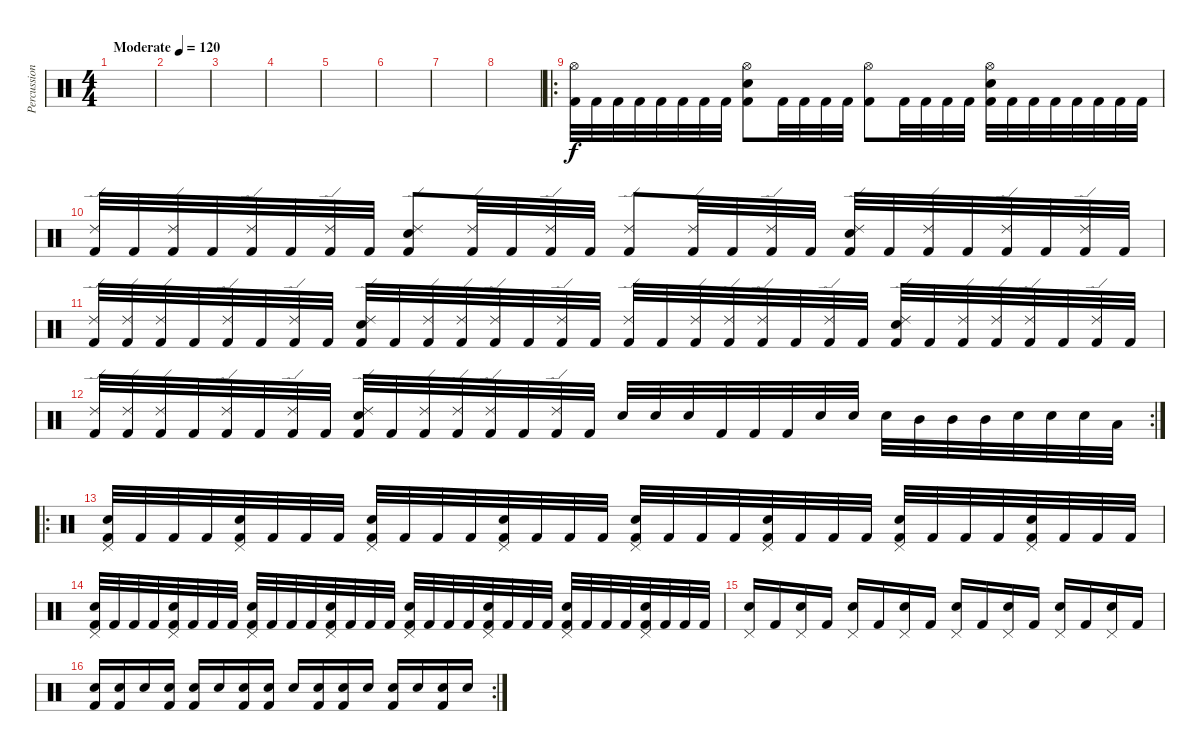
\track ("Percussions" "Percussion") {instrument percussion}
\staff {score}
\articulation defaults
\ts (4 4)
\tempo (120 "Moderate")
\clef neutral
\ks c
|
|
|
|
|
|
|
|
\ro
("Hi-Hat (open)" "Kick (hit) 2").32 "Kick (hit) 2".32 "Kick (hit) 2".32 "Kick (hit) 2".32 "Kick (hit) 2".32 "Kick (hit) 2".32 "Kick (hit) 2".32 "Kick (hit) 2".32 ("Hi-Hat (open)" "Electric Snare (hit)" "Kick (hit) 2").8 "Kick (hit) 2".32 "Kick (hit) 2".32 "Kick (hit) 2".32 "Kick (hit) 2".32 ("Hi-Hat (open)" "Kick (hit) 2").8 "Kick (hit) 2".32 "Kick (hit) 2".32 "Kick (hit) 2".32 "Kick (hit) 2".32 ("Hi-Hat (open)" "Electric Snare (hit)" "Kick (hit) 2").32 "Kick (hit) 2".32 "Kick (hit) 2".32 "Kick (hit) 2".32 "Kick (hit) 2".32 "Kick (hit) 2".32 "Kick (hit) 2".32 "Kick (hit) 2".32 |
("Ride (edge) 2" "Kick (hit) 2").32 "Kick (hit) 2".32 ("Ride (edge) 2" "Kick (hit) 2").32 "Kick (hit) 2".32 ("Ride (edge) 2" "Kick (hit) 2").32 "Kick (hit) 2".32 ("Ride (edge) 2" "Kick (hit) 2").32 "Kick (hit) 2".32 ("Ride (edge) 2" "Electric Snare (hit)" "Kick (hit) 2").8 ("Ride (edge) 2" "Kick (hit) 2").32 "Kick (hit) 2".32 ("Ride (edge) 2" "Kick (hit) 2").32 "Kick (hit) 2".32 ("Ride (edge) 2" "Kick (hit) 2").8 ("Ride (edge) 2" "Kick (hit) 2").32 "Kick (hit) 2".32 ("Ride (edge) 2" "Kick (hit) 2").32 "Kick (hit) 2".32 ("Ride (edge) 2" "Electric Snare (hit)" "Kick (hit) 2").32 "Kick (hit) 2".32 ("Ride (edge) 2" "Kick (hit) 2").32 "Kick (hit) 2".32 ("Ride (edge) 2" "Kick (hit) 2").32 "Kick (hit) 2".32 ("Ride (edge) 2" "Kick (hit) 2").32 "Kick (hit) 2".32 |
("Ride (edge) 2" "Kick (hit) 2").32 ("Ride (edge) 2" "Kick (hit) 2").32 ("Ride (edge) 2" "Kick (hit) 2").32 "Kick (hit) 2".32 ("Ride (edge) 2" "Kick (hit) 2").32 "Kick (hit) 2".32 ("Ride (edge) 2" "Kick (hit) 2").32 "Kick (hit) 2".32 ("Ride (edge) 2" "Electric Snare (hit)" "Kick (hit) 2").32 "Kick (hit) 2".32 ("Ride (edge) 2" "Kick (hit) 2").32 ("Ride (edge) 2" "Kick (hit) 2").32 ("Ride (edge) 2" "Kick (hit) 2").32 "Kick (hit) 2".32 ("Ride (edge) 2" "Kick (hit) 2").32 "Kick (hit) 2".32 ("Ride (edge) 2" "Kick (hit) 2").32 "Kick (hit) 2".32 ("Ride (edge) 2" "Kick (hit) 2").32 ("Ride (edge) 2" "Kick (hit) 2").32 ("Ride (edge) 2" "Kick (hit) 2").32 "Kick (hit) 2".32 ("Ride (edge) 2" "Kick (hit) 2").32 "Kick (hit) 2".32 ("Ride (edge) 2" "Electric Snare (hit)" "Kick (hit) 2").32 "Kick (hit) 2".32 ("Ride (edge) 2" "Kick (hit) 2").32 ("Ride (edge) 2" "Kick (hit) 2").32 ("Ride (edge) 2" "Kick (hit) 2").32 "Kick (hit) 2".32 ("Ride (edge) 2" "Kick (hit) 2").32 "Kick (hit) 2".32 |
\rc 2
("Ride (edge) 2" "Kick (hit) 2").32 ("Ride (edge) 2" "Kick (hit) 2").32 ("Ride (edge) 2" "Kick (hit) 2").32 "Kick (hit) 2".32 ("Ride (edge) 2" "Kick (hit) 2").32 "Kick (hit) 2".32 ("Ride (edge) 2" "Kick (hit) 2").32 "Kick (hit) 2".32 ("Ride (edge) 2" "Electric Snare (hit)" "Kick (hit) 2").32 "Kick (hit) 2".32 ("Ride (edge) 2" "Kick (hit) 2").32 ("Ride (edge) 2" "Kick (hit) 2").32 ("Ride (edge) 2" "Kick (hit) 2").32 "Kick (hit) 2".32 ("Ride (edge) 2" "Kick (hit) 2").32 "Kick (hit) 2".32 "Electric Snare (hit)".32 "Electric Snare (hit)".32 "Electric Snare (hit)".32 "Kick (hit) 2".32 "Kick (hit) 2".32 "Kick (hit) 2".32 "Electric Snare (hit)".32 "Electric Snare (hit)".32 "Electric Snare (hit)".32 "Mid Tom (hit)".32 "Mid Tom (hit)".32 "Mid Tom (hit)".32 "Electric Snare (hit)".32 "Electric Snare (hit)".32 "Electric Snare (hit)".32 "Low Tom (hit)".32 |
\ro
("Pedal Hi-Hat (hit)" "Electric Snare (hit)" "Kick (hit) 2").32 "Kick (hit) 2".32 "Kick (hit) 2".32 "Kick (hit) 2".32 ("Pedal Hi-Hat (hit)" "Electric Snare (hit)" "Kick (hit) 2").32 "Kick (hit) 2".32 "Kick (hit) 2".32 "Kick (hit) 2".32 ("Pedal Hi-Hat (hit)" "Electric Snare (hit)" "Kick (hit) 2").32 "Kick (hit) 2".32 "Kick (hit) 2".32 "Kick (hit) 2".32 ("Pedal Hi-Hat (hit)" "Electric Snare (hit)" "Kick (hit) 2").32 "Kick (hit) 2".32 "Kick (hit) 2".32 "Kick (hit) 2".32 ("Pedal Hi-Hat (hit)" "Electric Snare (hit)" "Kick (hit) 2").32 "Kick (hit) 2".32 "Kick (hit) 2".32 "Kick (hit) 2".32 ("Pedal Hi-Hat (hit)" "Electric Snare (hit)" "Kick (hit) 2").32 "Kick (hit) 2".32 "Kick (hit) 2".32 "Kick (hit) 2".32 ("Pedal Hi-Hat (hit)" "Electric Snare (hit)" "Kick (hit) 2").32 "Kick (hit) 2".32 "Kick (hit) 2".32 "Kick (hit) 2".32 ("Pedal Hi-Hat (hit)" "Electric Snare (hit)" "Kick (hit) 2").32 "Kick (hit) 2".32 "Kick (hit) 2".32 "Kick (hit) 2".32 |
("Pedal Hi-Hat (hit)" "Electric Snare (hit)" "Kick (hit) 2").32 "Kick (hit) 2".32 "Kick (hit) 2".32 "Kick (hit) 2".32 ("Pedal Hi-Hat (hit)" "Electric Snare (hit)" "Kick (hit) 2").32 "Kick (hit) 2".32 "Kick (hit) 2".32 "Kick (hit) 2".32 ("Pedal Hi-Hat (hit)" "Electric Snare (hit)" "Kick (hit) 2").32 "Kick (hit) 2".32 "Kick (hit) 2".32 "Kick (hit) 2".32 ("Pedal Hi-Hat (hit)" "Electric Snare (hit)" "Kick (hit) 2").32 "Kick (hit) 2".32 "Kick (hit) 2".32 "Kick (hit) 2".32 ("Pedal Hi-Hat (hit)" "Electric Snare (hit)" "Kick (hit) 2").32 "Kick (hit) 2".32 "Kick (hit) 2".32 "Kick (hit) 2".32 ("Pedal Hi-Hat (hit)" "Electric Snare (hit)" "Kick (hit) 2").32 "Kick (hit) 2".32 "Kick (hit) 2".32 "Kick (hit) 2".32 ("Pedal Hi-Hat (hit)" "Electric Snare (hit)" "Kick (hit) 2").32 "Kick (hit) 2".32 "Kick (hit) 2".32 "Kick (hit) 2".32 ("Pedal Hi-Hat (hit)" "Electric Snare (hit)" "Kick (hit) 2").32 "Kick (hit) 2".32 "Kick (hit) 2".32 "Kick (hit) 2".32 |
("Pedal Hi-Hat (hit)" "Electric Snare (hit)").16 "Kick (hit) 2".16 ("Pedal Hi-Hat (hit)" "Electric Snare (hit)").16 "Kick (hit) 2".16 ("Pedal Hi-Hat (hit)" "Electric Snare (hit)").16 "Kick (hit) 2".16 ("Pedal Hi-Hat (hit)" "Electric Snare (hit)").16 "Kick (hit) 2".16 ("Pedal Hi-Hat (hit)" "Electric Snare (hit)").16 "Kick (hit) 2".16 ("Pedal Hi-Hat (hit)" "Electric Snare (hit)").16 "Kick (hit) 2".16 ("Pedal Hi-Hat (hit)" "Electric Snare (hit)").16 "Kick (hit) 2".16 ("Pedal Hi-Hat (hit)" "Electric Snare (hit)").16 "Kick (hit) 2".16 |
\rc 2
("Electric Snare (hit)" "Kick (hit) 2").16 ("Electric Snare (hit)" "Kick (hit) 2").16 "Electric Snare (hit)".16 ("Electric Snare (hit)" "Kick (hit) 2").16 ("Electric Snare (hit)" "Kick (hit) 2").16 "Electric Snare (hit)".16 ("Electric Snare (hit)" "Kick (hit) 2").16 ("Electric Snare (hit)" "Kick (hit) 2").16 "Electric Snare (hit)".16 ("Electric Snare (hit)" "Kick (hit) 2").16 ("Electric Snare (hit)" "Kick (hit) 2").16 "Electric Snare (hit)".16 ("Electric Snare (hit)" "Kick (hit) 2").16 "Electric Snare (hit)".16 ("Electric Snare (hit)" "Kick (hit) 2").16 "Electric Snare (hit)".16
